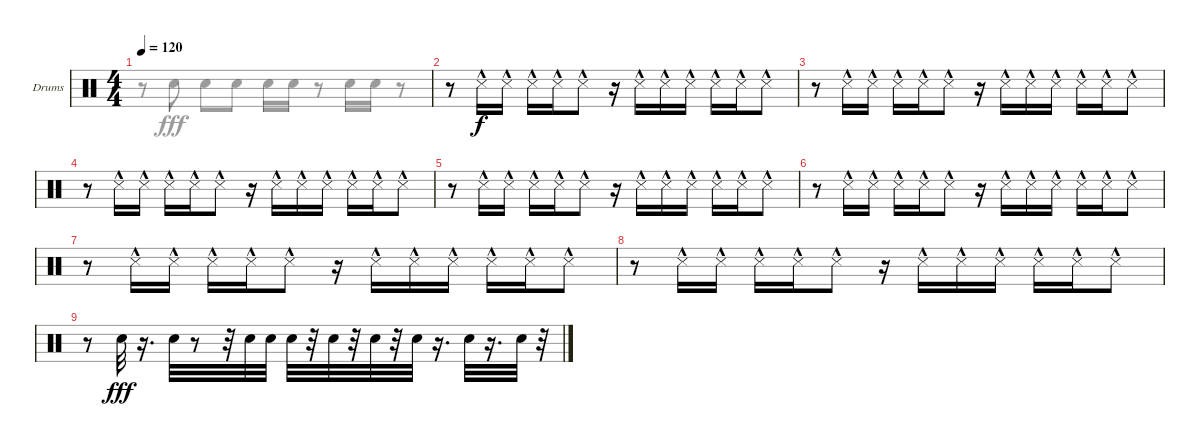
\defaultSystemsLayout 4
\bracketExtendMode nobrackets
\firstSystemTrackNameOrientation horizontal
\otherSystemsTrackNameOrientation horizontal
\track ("Drumkit" "Drums") {instrument percussion}
\staff {score}
\articulation defaults
\voice
\ts (4 4)
\tempo 120
\clef neutral
\scale
0.333333
\ks c
|
\scale
0.333333 r.8 "Snare (side stick) 3"{hac}.16 "Snare (side stick) 3"{hac}.16 "Snare (side stick) 3"{hac}.16 "Snare (side stick) 3"{hac}.16 "Snare (side stick) 3"{hac}.8 r.16 "Snare (side stick) 3"{hac}.16 "Snare (side stick) 3"{hac}.16 "Snare (side stick) 3"{hac}.16 "Snare (side stick) 3"{hac}.16 "Snare (side stick) 3"{hac}.16 "Snare (side stick) 3"{hac}.8 |
\scale
0.333333 r.8 "Snare (side stick) 3"{hac}.16 "Snare (side stick) 3"{hac}.16 "Snare (side stick) 3"{hac}.16 "Snare (side stick) 3"{hac}.16 "Snare (side stick) 3"{hac}.8 r.16 "Snare (side stick) 3"{hac}.16 "Snare (side stick) 3"{hac}.16 "Snare (side stick) 3"{hac}.16 "Snare (side stick) 3"{hac}.16 "Snare (side stick) 3"{hac}.16 "Snare (side stick) 3"{hac}.8 |
\scale
0.333333 r.8 "Snare (side stick) 3"{hac}.16 "Snare (side stick) 3"{hac}.16 "Snare (side stick) 3"{hac}.16 "Snare (side stick) 3"{hac}.16 "Snare (side stick) 3"{hac}.8 r.16 "Snare (side stick) 3"{hac}.16 "Snare (side stick) 3"{hac}.16 "Snare (side stick) 3"{hac}.16 "Snare (side stick) 3"{hac}.16 "Snare (side stick) 3"{hac}.16 "Snare (side stick) 3"{hac}.8 |
\scale
0.333333 r.8 "Snare (side stick) 3"{hac}.16 "Snare (side stick) 3"{hac}.16 "Snare (side stick) 3"{hac}.16 "Snare (side stick) 3"{hac}.16 "Snare (side stick) 3"{hac}.8 r.16 "Snare (side stick) 3"{hac}.16 "Snare (side stick) 3"{hac}.16 "Snare (side stick) 3"{hac}.16 "Snare (side stick) 3"{hac}.16 "Snare (side stick) 3"{hac}.16 "Snare (side stick) 3"{hac}.8 |
\scale
0.333333 r.8 "Snare (side stick) 3"{hac}.16 "Snare (side stick) 3"{hac}.16 "Snare (side stick) 3"{hac}.16 "Snare (side stick) 3"{hac}.16 "Snare (side stick) 3"{hac}.8 r.16 "Snare (side stick) 3"{hac}.16 "Snare (side stick) 3"{hac}.16 "Snare (side stick) 3"{hac}.16 "Snare (side stick) 3"{hac}.16 "Snare (side stick) 3"{hac}.16 "Snare (side stick) 3"{hac}.8 |
\scale
0.333333 r.8 "Snare (side stick) 3"{hac}.16 "Snare (side stick) 3"{hac}.16 "Snare (side stick) 3"{hac}.16 "Snare (side stick) 3"{hac}.16 "Snare (side stick) 3"{hac}.8 r.16 "Snare (side stick) 3"{hac}.16 "Snare (side stick) 3"{hac}.16 "Snare (side stick) 3"{hac}.16 "Snare (side stick) 3"{hac}.16 "Snare (side stick) 3"{hac}.16 "Snare (side stick) 3"{hac}.8 |
\scale
0.333333 r.8 "Snare (side stick) 3"{hac}.16 "Snare (side stick) 3"{hac}.16 "Snare (side stick) 3"{hac}.16 "Snare (side stick) 3"{hac}.16 "Snare (side stick) 3"{hac}.8 r.16 "Snare (side stick) 3"{hac}.16 "Snare (side stick) 3"{hac}.16 "Snare (side stick) 3"{hac}.16 "Snare (side stick) 3"{hac}.16 "Snare (side stick) 3"{hac}.16 "Snare (side stick) 3"{hac}.8 |
\scale
0.333333 r.8 "Snare (hit) 2".32{dy fff} r.16{d} "Snare (hit) 2".32 r.8 r.32 "Snare (hit) 2".32 "Snare (hit) 2".32 "Snare (hit) 2".32 r.32 "Snare (hit) 2".32 r.32 "Snare (hit) 2".32 r.32 "Snare (hit) 2".32 r.16{d} "Snare (hit) 2".32 r.16{d} "Snare (hit) 2".32 r.32 |
|
|
|
|
|
|
\voice
\clef neutral
\ottava regular
\simile none
\scale
0.333333
\ks c
r.8{dy fff} "Snare (hit) 2".8 "Snare (hit) 2".8 "Snare (hit) 2".8 "Snare (hit) 2".16 "Snare (hit) 2".16 r.8 "Snare (hit) 2".16 "Snare (hit) 2".16 r.8 |
\scale
0.333333 |
\scale
0.333333 |
\scale
0.333333 |
\scale
0.333333 |
\scale
0.333333 |
\scale
0.333333 |
\scale
0.333333 |
\scale
0.333333 |
|
|
|
|
|
|
